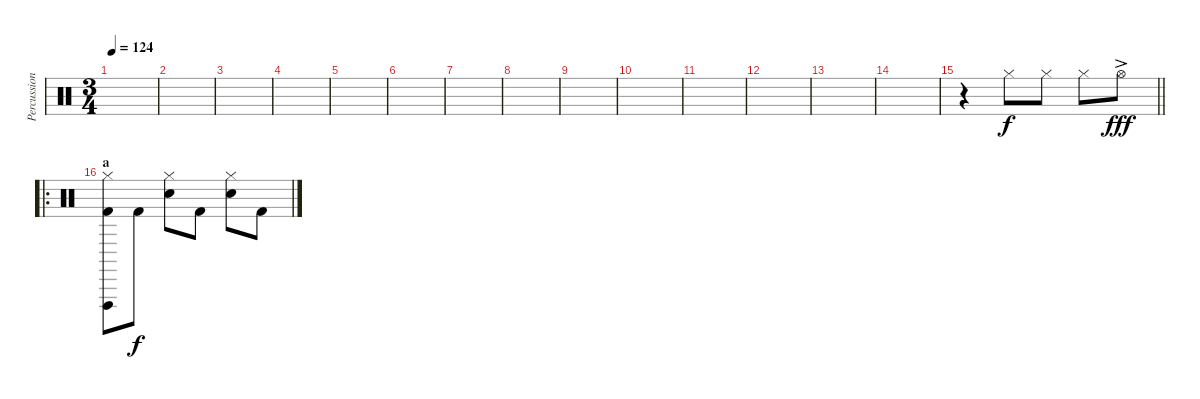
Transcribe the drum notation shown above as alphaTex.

\track ("Percussion" "Percussion") {instrument percussion}
\staff {score}
\articulation defaults
\ts (3 4)
\tempo 124
\clef neutral
\ks c
|
|
|
|
|
|
|
|
|
|
|
|
|
|
\barLineRight lightlight
r.4 "Hi-Hat (closed)".8 "Hi-Hat (closed)".8 "Hi-Hat (closed)".8 "Hi-Hat (open)"{ac}.8{dy fff} |
\ro
\section ("" "a")
("Hi-Hat (closed)" "Vibraslap (hit)" "Kick (hit) 2").8 "Kick (hit) 2".8{dy f} ("Hi-Hat (closed)" "Hand Clap (hit)").8 "Kick (hit) 2".8 ("Hi-Hat (closed)" "Hand Clap (hit)").8 "Kick (hit) 2".8
